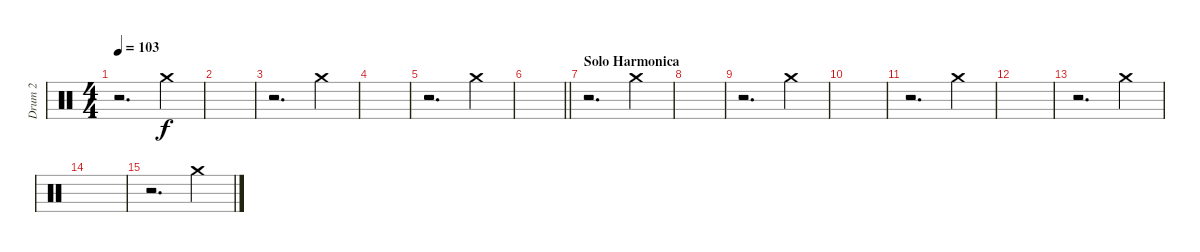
\track ("Drum 2" "Drum 2") {instrument percussion}
\staff {score}
\articulation defaults
\ts (4 4)
\tempo 103
\clef neutral
\ks c
r.2{d dy f} "Crash medium (hit)".4 |
|
r.2{d} "Crash medium (hit)".4 |
|
r.2{d} "Crash medium (hit)".4 |
\barLineRight lightlight
|
\section ("" "Solo Harmonica")
r.2{d} "Crash medium (hit)".4 |
|
r.2{d} "Crash medium (hit)".4 |
|
r.2{d} "Crash medium (hit)".4 |
|
r.2{d} "Crash medium (hit)".4 |
|
r.2{d} "Crash medium (hit)".4
